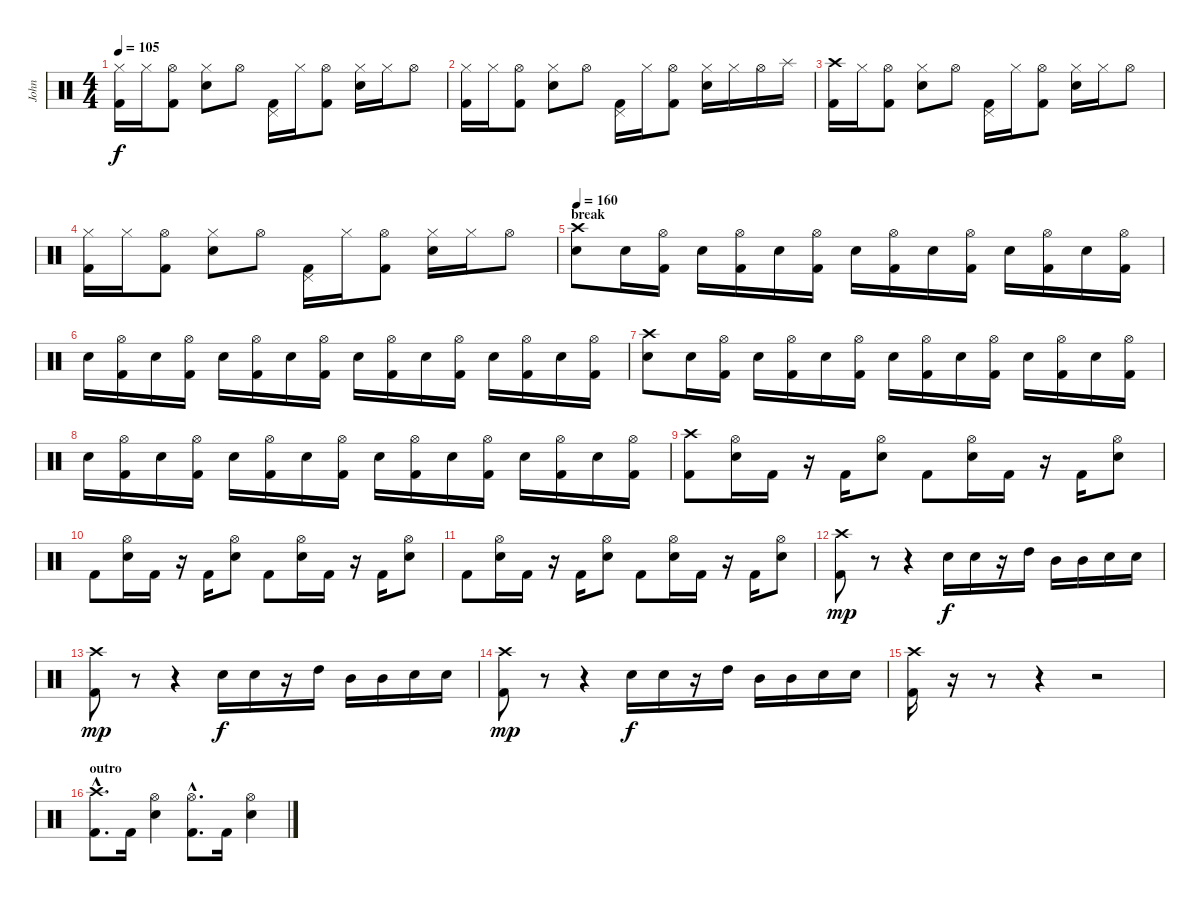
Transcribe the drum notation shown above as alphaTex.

\track ("John" "John") {instrument percussion}
\staff {score}
\articulation defaults
\ts (4 4)
\tempo 105
\clef neutral
\ks c
("Hi-Hat (closed)" "Kick (hit) 2").16{dy f} "Hi-Hat (closed)".16 ("Hi-Hat (open)" "Kick (hit) 2").8 ("Hi-Hat (closed)" "Electric Snare (hit)").8 "Hi-Hat (open)".8 ("Pedal Hi-Hat (hit)" "Kick (hit) 2").16 "Hi-Hat (closed)".16 ("Hi-Hat (open)" "Kick (hit) 2").8 ("Hi-Hat (closed)" "Electric Snare (hit)").16 "Hi-Hat (closed)".16 "Hi-Hat (open)".8 |
("Hi-Hat (closed)" "Kick (hit) 2").16 "Hi-Hat (closed)".16 ("Hi-Hat (open)" "Kick (hit) 2").8 ("Hi-Hat (closed)" "Electric Snare (hit)").8 "Hi-Hat (open)".8 ("Pedal Hi-Hat (hit)" "Kick (hit) 2").16 "Hi-Hat (closed)".16 ("Hi-Hat (open)" "Kick (hit) 2").8 ("Hi-Hat (closed)" "Electric Snare (hit)").16 "Hi-Hat (closed)".16 "Hi-Hat (open)".16 "Splash (hit)".16 |
("Crash high (hit)" "Kick (hit) 2").16 "Hi-Hat (closed)".16 ("Hi-Hat (open)" "Kick (hit) 2").8 ("Hi-Hat (closed)" "Electric Snare (hit)").8 "Hi-Hat (open)".8 ("Pedal Hi-Hat (hit)" "Kick (hit) 2").16 "Hi-Hat (closed)".16 ("Hi-Hat (open)" "Kick (hit) 2").8 ("Hi-Hat (closed)" "Electric Snare (hit)").16 "Hi-Hat (closed)".16 "Hi-Hat (open)".8 |
("Hi-Hat (closed)" "Kick (hit) 2").16 "Hi-Hat (closed)".16 ("Hi-Hat (open)" "Kick (hit) 2").8 ("Hi-Hat (closed)" "Electric Snare (hit)").8 "Hi-Hat (open)".8 ("Pedal Hi-Hat (hit)" "Kick (hit) 2").16 "Hi-Hat (closed)".16 ("Hi-Hat (open)" "Kick (hit) 2").8 ("Hi-Hat (closed)" "Electric Snare (hit)").16 "Hi-Hat (closed)".16 "Hi-Hat (open)".8 |
\section ("" "break")
\tempo 160
("Crash high (hit)" "Electric Snare (hit)").8 "Electric Snare (hit)".16 ("Hi-Hat (open)" "Kick (hit) 2").16 "Electric Snare (hit)".16 ("Hi-Hat (open)" "Kick (hit) 2").16 "Electric Snare (hit)".16 ("Hi-Hat (open)" "Kick (hit) 2").16 "Electric Snare (hit)".16 ("Hi-Hat (open)" "Kick (hit) 2").16 "Electric Snare (hit)".16 ("Hi-Hat (open)" "Kick (hit) 2").16 "Electric Snare (hit)".16 ("Hi-Hat (open)" "Kick (hit) 2").16 "Electric Snare (hit)".16 ("Hi-Hat (open)" "Kick (hit) 2").16 |
"Electric Snare (hit)".16 ("Hi-Hat (open)" "Kick (hit) 2").16 "Electric Snare (hit)".16 ("Hi-Hat (open)" "Kick (hit) 2").16 "Electric Snare (hit)".16 ("Hi-Hat (open)" "Kick (hit) 2").16 "Electric Snare (hit)".16 ("Hi-Hat (open)" "Kick (hit) 2").16 "Electric Snare (hit)".16 ("Hi-Hat (open)" "Kick (hit) 2").16 "Electric Snare (hit)".16 ("Hi-Hat (open)" "Kick (hit) 2").16 "Electric Snare (hit)".16 ("Hi-Hat (open)" "Kick (hit) 2").16 "Electric Snare (hit)".16 ("Hi-Hat (open)" "Kick (hit) 2").16 |
("Crash high (hit)" "Electric Snare (hit)").8 "Electric Snare (hit)".16 ("Hi-Hat (open)" "Kick (hit) 2").16 "Electric Snare (hit)".16 ("Hi-Hat (open)" "Kick (hit) 2").16 "Electric Snare (hit)".16 ("Hi-Hat (open)" "Kick (hit) 2").16 "Electric Snare (hit)".16 ("Hi-Hat (open)" "Kick (hit) 2").16 "Electric Snare (hit)".16 ("Hi-Hat (open)" "Kick (hit) 2").16 "Electric Snare (hit)".16 ("Hi-Hat (open)" "Kick (hit) 2").16 "Electric Snare (hit)".16 ("Hi-Hat (open)" "Kick (hit) 2").16 |
"Electric Snare (hit)".16 ("Hi-Hat (open)" "Kick (hit) 2").16 "Electric Snare (hit)".16 ("Hi-Hat (open)" "Kick (hit) 2").16 "Electric Snare (hit)".16 ("Hi-Hat (open)" "Kick (hit) 2").16 "Electric Snare (hit)".16 ("Hi-Hat (open)" "Kick (hit) 2").16 "Electric Snare (hit)".16 ("Hi-Hat (open)" "Kick (hit) 2").16 "Electric Snare (hit)".16 ("Hi-Hat (open)" "Kick (hit) 2").16 "Electric Snare (hit)".16 ("Hi-Hat (open)" "Kick (hit) 2").16 "Electric Snare (hit)".16 ("Hi-Hat (open)" "Kick (hit) 2").16 |
("Crash high (hit)" "Kick (hit) 2").8 ("Hi-Hat (open)" "Electric Snare (hit)").16 "Kick (hit) 2".16 r.16 "Kick (hit) 2".16 ("Hi-Hat (open)" "Electric Snare (hit)").8 "Kick (hit) 2".8 ("Hi-Hat (open)" "Electric Snare (hit)").16 "Kick (hit) 2".16 r.16 "Kick (hit) 2".16 ("Hi-Hat (open)" "Electric Snare (hit)").8 |
"Kick (hit) 2".8 ("Hi-Hat (open)" "Electric Snare (hit)").16 "Kick (hit) 2".16 r.16 "Kick (hit) 2".16 ("Hi-Hat (open)" "Electric Snare (hit)").8 "Kick (hit) 2".8 ("Hi-Hat (open)" "Electric Snare (hit)").16 "Kick (hit) 2".16 r.16 "Kick (hit) 2".16 ("Hi-Hat (open)" "Electric Snare (hit)").8 |
"Kick (hit) 2".8 ("Hi-Hat (open)" "Electric Snare (hit)").16 "Kick (hit) 2".16 r.16 "Kick (hit) 2".16 ("Hi-Hat (open)" "Electric Snare (hit)").8 "Kick (hit) 2".8 ("Hi-Hat (open)" "Electric Snare (hit)").16 "Kick (hit) 2".16 r.16 "Kick (hit) 2".16 ("Hi-Hat (open)" "Electric Snare (hit)").8 |
("Crash high (hit)" "Kick (hit) 2").8{dy mp} r.8{volume 0} r.4 "Electric Snare (hit)".16{dy f volume 13} "Electric Snare (hit)".16 r.16 "High Tom (hit)".16 "Mid Tom (hit)".16 "Mid Tom (hit)".16 "Electric Snare (hit)".16 "Electric Snare (hit)".16 |
("Crash high (hit)" "Kick (hit) 2").8{dy mp} r.8{volume 0} r.4 "Electric Snare (hit)".16{dy f volume 13} "Electric Snare (hit)".16 r.16 "High Tom (hit)".16 "Mid Tom (hit)".16 "Mid Tom (hit)".16 "Electric Snare (hit)".16 "Electric Snare (hit)".16 |
("Crash high (hit)" "Kick (hit) 2").8{dy mp} r.8{volume 0} r.4 "Electric Snare (hit)".16{dy f volume 13} "Electric Snare (hit)".16 r.16 "High Tom (hit)".16 "Mid Tom (hit)".16 "Mid Tom (hit)".16 "Electric Snare (hit)".16 "Electric Snare (hit)".16 |
("Crash high (hit)" "Kick (hit) 2").16 r.16{volume 0} r.8 r.4 r.2 |
\section ("" "outro")
("Crash high (hit)"{hac} "Kick (hit) 2"{hac}).8{d volume 13} "Kick (hit) 2".16 ("Hi-Hat (open)" "Electric Snare (hit)").4 ("Hi-Hat (open)"{hac} "Kick (hit) 2"{hac}).8{d} "Kick (hit) 2".16 ("Hi-Hat (open)" "Electric Snare (hit)").4
